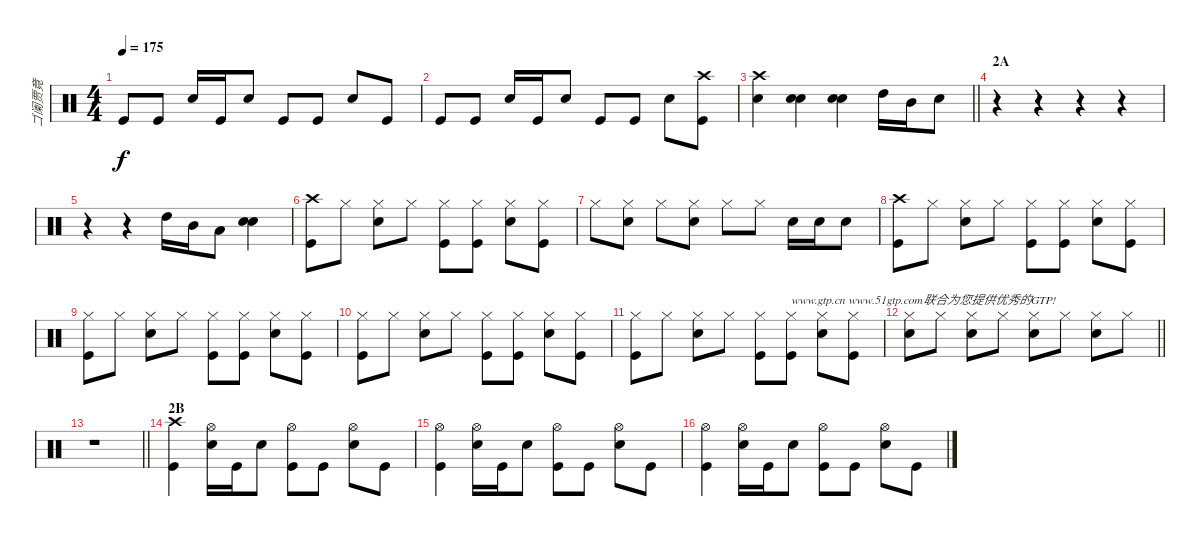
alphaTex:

\track ("ゴ阑贾竟" "ゴ阑贾竟") {instrument percussion}
\staff {score}
\articulation defaults
\ts (4 4)
\tempo 175
\clef neutral
\ks c "Kick (hit)".8{dy f} "Kick (hit)".8 "Snare (hit) 2".16 "Kick (hit)".16 "Snare (hit) 2".8 "Kick (hit)".8 "Kick (hit)".8 "Snare (hit) 2".8 "Kick (hit)".8
|
"Kick (hit)".8 "Kick (hit)".8 "Snare (hit) 2".16 "Kick (hit)".16 "Snare (hit) 2".8 "Kick (hit)".8 "Kick (hit)".8 "Snare (hit) 2".8 ("Kick (hit)" "Crash high (hit)").8 |
\barLineRight lightlight
("Snare (hit) 2" "Crash high (hit)").4 ("Snare (hit) 2" "Snare (hit) 2").4 ("Snare (hit) 2" "Snare (hit) 2").4 "High Tom (hit)".16 "Mid Tom (hit)".16 "Snare (hit) 2".8 |
\section ("" "2A")
r.4 r.4 r.4 r.4 |
r.4 r.4 "High Tom (hit)".16 "Mid Tom (hit)".16 "Low Tom (hit)".8 ("Snare (hit) 2" "Snare (hit) 2").4 |
("Crash high (hit)" "Kick (hit)").8 "Hi-Hat (closed)".8 ("Hi-Hat (closed)" "Snare (hit) 2").8 "Hi-Hat (closed)".8 ("Hi-Hat (closed)" "Kick (hit)").8 ("Hi-Hat (closed)" "Kick (hit)").8 ("Hi-Hat (closed)" "Snare (hit) 2").8 ("Hi-Hat (closed)" "Kick (hit)").8 |
"Hi-Hat (closed)".8 ("Hi-Hat (closed)" "Snare (hit) 2").8 "Hi-Hat (closed)".8 ("Hi-Hat (closed)" "Snare (hit) 2").8 "Hi-Hat (closed)".8 "Hi-Hat (closed)".8 "Snare (hit) 2".16 "Snare (hit) 2".16 "Snare (hit) 2".8 |
("Kick (hit)" "Crash high (hit)").8 "Hi-Hat (closed)".8 ("Hi-Hat (closed)" "Snare (hit) 2").8 "Hi-Hat (closed)".8 ("Hi-Hat (closed)" "Kick (hit)").8 ("Hi-Hat (closed)" "Kick (hit)").8 ("Hi-Hat (closed)" "Snare (hit) 2").8 ("Hi-Hat (closed)" "Kick (hit)").8 |
("Hi-Hat (closed)" "Kick (hit)").8 "Hi-Hat (closed)".8 ("Hi-Hat (closed)" "Snare (hit) 2").8 "Hi-Hat (closed)".8 ("Hi-Hat (closed)" "Kick (hit)").8 ("Hi-Hat (closed)" "Kick (hit)").8 ("Hi-Hat (closed)" "Snare (hit) 2").8 ("Hi-Hat (closed)" "Kick (hit)").8 |
("Hi-Hat (closed)" "Kick (hit)").8 "Hi-Hat (closed)".8 ("Hi-Hat (closed)" "Snare (hit) 2").8 "Hi-Hat (closed)".8 ("Hi-Hat (closed)" "Kick (hit)").8 ("Hi-Hat (closed)" "Kick (hit)").8 ("Hi-Hat (closed)" "Snare (hit) 2").8 ("Hi-Hat (closed)" "Kick (hit)").8 |
("Hi-Hat (closed)" "Kick (hit)").8 "Hi-Hat (closed)".8 ("Hi-Hat (closed)" "Snare (hit) 2").8 "Hi-Hat (closed)".8 ("Hi-Hat (closed)" "Kick (hit)").8 ("Hi-Hat (closed)" "Kick (hit)").8{txt "www.gtp.cn www.51gtp.com联合为您提供优秀的GTP!"} ("Hi-Hat (closed)" "Snare (hit) 2").8 ("Hi-Hat (closed)" "Kick (hit)").8 |
\barLineRight lightlight
("Snare (hit) 2" "Hi-Hat (closed)").8 "Hi-Hat (closed)".8 ("Hi-Hat (closed)" "Snare (hit) 2").8 "Hi-Hat (closed)".8 ("Hi-Hat (closed)" "Snare (hit) 2").8 "Hi-Hat (closed)".8 ("Hi-Hat (closed)" "Snare (hit) 2").8 "Hi-Hat (closed)".8 |
\barLineRight lightlight
r.1 |
\section ("" "2B")
("Crash high (hit)" "Kick (hit)").4 ("Snare (hit) 2" "Hi-Hat (open)").16 "Kick (hit)".16 "Snare (hit) 2".8 ("Kick (hit)" "Hi-Hat (open)").8 "Kick (hit)".8 ("Snare (hit) 2" "Hi-Hat (open)").8 "Kick (hit)".8 |
("Hi-Hat (open)" "Kick (hit)").4 ("Snare (hit) 2" "Hi-Hat (open)").16 "Kick (hit)".16 "Snare (hit) 2".8 ("Kick (hit)" "Hi-Hat (open)").8 "Kick (hit)".8 ("Snare (hit) 2" "Hi-Hat (open)").8 "Kick (hit)".8 |
("Hi-Hat (open)" "Kick (hit)").4 ("Snare (hit) 2" "Hi-Hat (open)").16 "Kick (hit)".16 "Snare (hit) 2".8 ("Kick (hit)" "Hi-Hat (open)").8 "Kick (hit)".8 ("Snare (hit) 2" "Hi-Hat (open)").8 "Kick (hit)".8
